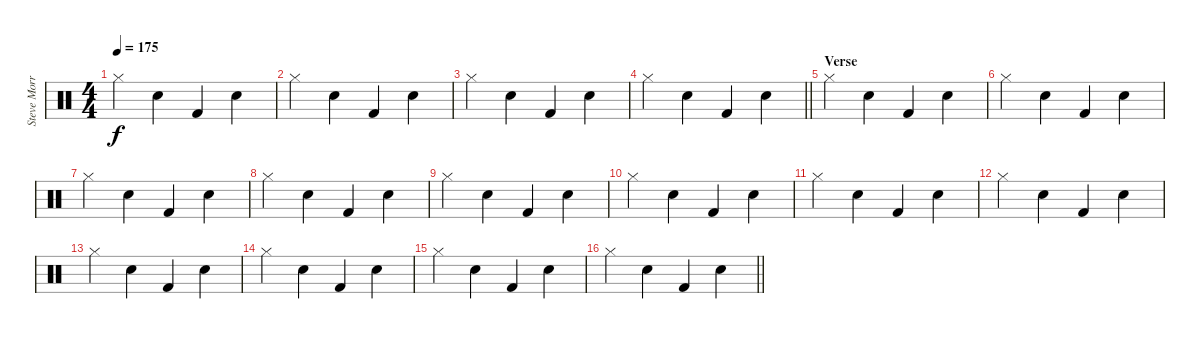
\track ("Steve Morris" "Steve Morr") {instrument percussion}
\staff {score}
\articulation defaults
\ts (4 4)
\tempo 175
\clef neutral
\ks c "Hi-Hat (closed)".4{dy f} "Snare (hit) 2".4 "Kick (hit) 2".4 "Snare (hit) 2".4
|
"Hi-Hat (closed)".4 "Snare (hit) 2".4 "Kick (hit) 2".4 "Snare (hit) 2".4 |
"Hi-Hat (closed)".4 "Snare (hit) 2".4 "Kick (hit) 2".4 "Snare (hit) 2".4 |
\barLineRight lightlight "Hi-Hat (closed)".4 "Snare (hit) 2".4 "Kick (hit) 2".4 "Snare (hit) 2".4
|
\section ("" "Verse")
"Hi-Hat (closed)".4 "Snare (hit) 2".4 "Kick (hit) 2".4 "Snare (hit) 2".4 |
"Hi-Hat (closed)".4 "Snare (hit) 2".4 "Kick (hit) 2".4 "Snare (hit) 2".4 |
"Hi-Hat (closed)".4 "Snare (hit) 2".4 "Kick (hit) 2".4 "Snare (hit) 2".4 |
"Hi-Hat (closed)".4 "Snare (hit) 2".4 "Kick (hit) 2".4 "Snare (hit) 2".4 |
"Hi-Hat (closed)".4 "Snare (hit) 2".4 "Kick (hit) 2".4 "Snare (hit) 2".4 |
"Hi-Hat (closed)".4 "Snare (hit) 2".4 "Kick (hit) 2".4 "Snare (hit) 2".4 |
"Hi-Hat (closed)".4 "Snare (hit) 2".4 "Kick (hit) 2".4 "Snare (hit) 2".4 |
"Hi-Hat (closed)".4 "Snare (hit) 2".4 "Kick (hit) 2".4 "Snare (hit) 2".4 |
"Hi-Hat (closed)".4 "Snare (hit) 2".4 "Kick (hit) 2".4 "Snare (hit) 2".4 |
"Hi-Hat (closed)".4 "Snare (hit) 2".4 "Kick (hit) 2".4 "Snare (hit) 2".4 |
"Hi-Hat (closed)".4 "Snare (hit) 2".4 "Kick (hit) 2".4 "Snare (hit) 2".4 |
\barLineRight lightlight "Hi-Hat (closed)".4 "Snare (hit) 2".4 "Kick (hit) 2".4 "Snare (hit) 2".4
